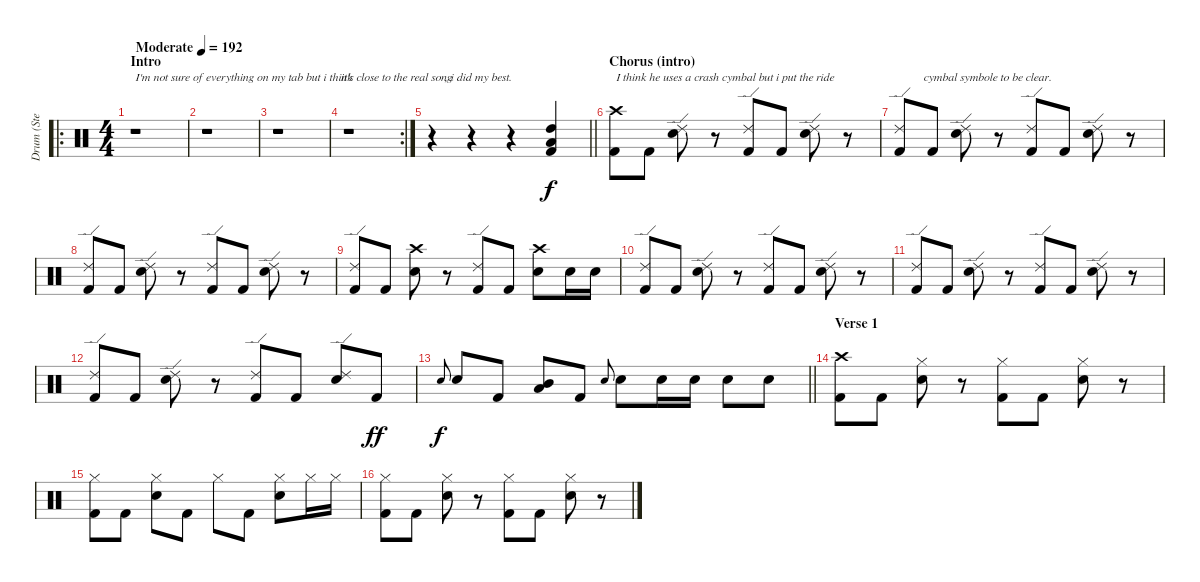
\track (" Drum (Steve O)" " Drum (Ste") {instrument percussion}
\staff {score}
\articulation defaults
\ro
\ts (4 4)
\section ("" "Intro")
\tempo (192 "Moderate")
\clef neutral
\ks c
r.1{txt "I'm not sure of everything on my tab but i think " dy f} |
r.1 |
r.1{txt "                     it's close to the real song"} |
\rc 2
r.1{txt "                                , i did my best."} |
\barLineRight lightlight
r.4 r.4 r.4 ("High Tom (hit)" "Low Tom (hit)" "Kick (hit) 2").4 |
\section ("" "Chorus (intro)")
("Crash high (hit)" "Kick (hit) 2").8{txt "I think he uses a crash cymbal but i put the ride "} "Kick (hit) 2".8 ("Ride (edge) 2" "Snare (hit) 2").8 r.8 ("Ride (edge) 2" "Kick (hit) 2").8 "Kick (hit) 2".8 ("Ride (edge) 2" "Snare (hit) 2").8 r.8 |
("Ride (edge) 2" "Kick (hit) 2").8{txt "        cymbal symbole to be clear."} "Kick (hit) 2".8 ("Ride (edge) 2" "Snare (hit) 2").8 r.8 ("Ride (edge) 2" "Kick (hit) 2").8 "Kick (hit) 2".8 ("Ride (edge) 2" "Snare (hit) 2").8 r.8 |
("Ride (edge) 2" "Kick (hit) 2").8 "Kick (hit) 2".8 ("Ride (edge) 2" "Snare (hit) 2").8 r.8 ("Ride (edge) 2" "Kick (hit) 2").8 "Kick (hit) 2".8 ("Ride (edge) 2" "Snare (hit) 2").8 r.8 |
("Ride (edge) 2" "Kick (hit) 2").8 "Kick (hit) 2".8 ("Crash high (hit)" "Snare (hit) 2").8 r.8 ("Ride (edge) 2" "Kick (hit) 2").8 "Kick (hit) 2".8 ("Crash high (hit)" "Snare (hit) 2").8 "Snare (hit) 2".16 "Snare (hit) 2".16 |
("Ride (edge) 2" "Kick (hit) 2").8 "Kick (hit) 2".8 ("Ride (edge) 2" "Snare (hit) 2").8 r.8 ("Ride (edge) 2" "Kick (hit) 2").8 "Kick (hit) 2".8 ("Ride (edge) 2" "Snare (hit) 2").8 r.8 |
("Ride (edge) 2" "Kick (hit) 2").8 "Kick (hit) 2".8 ("Ride (edge) 2" "Snare (hit) 2").8 r.8 ("Ride (edge) 2" "Kick (hit) 2").8 "Kick (hit) 2".8 ("Ride (edge) 2" "Snare (hit) 2").8 r.8 |
("Ride (edge) 2" "Kick (hit) 2").8 "Kick (hit) 2".8 ("Ride (edge) 2" "Snare (hit) 2").8 r.8 ("Ride (edge) 2" "Kick (hit) 2").8 "Kick (hit) 2".8 ("Ride (edge) 2" "Snare (hit) 2").8 "Kick (hit) 2".8{dy ff} |
\barLineRight lightlight "Snare (hit) 2".8{gr onbeat dy f} "Snare (hit) 2".8 "Kick (hit) 2".8
("Mid Tom (hit)" "Low Floor Tom (hit)").8 "Kick (hit) 2".8 "Snare (hit) 2".8{gr onbeat} "Snare (hit) 2".8 "Snare (hit) 2".16 "Snare (hit) 2".16 "Snare (hit) 2".8 "Snare (hit) 2".8 |
\section ("" "Verse 1")
("Crash high (hit)" "Kick (hit) 2").8 "Kick (hit) 2".8 ("Hi-Hat (closed)" "Snare (hit) 2").8 r.8 ("Hi-Hat (closed)" "Kick (hit) 2").8 "Kick (hit) 2".8 ("Hi-Hat (closed)" "Snare (hit) 2").8 r.8 |
("Hi-Hat (closed)" "Kick (hit) 2").8 "Kick (hit) 2".8 ("Hi-Hat (closed)" "Snare (hit) 2").8 "Kick (hit) 2".8 "Hi-Hat (closed)".8 "Kick (hit) 2".8 ("Hi-Hat (closed)" "Snare (hit) 2").8 "Hi-Hat (closed)".16 "Hi-Hat (closed)".16 |
("Hi-Hat (closed)" "Kick (hit) 2").8 "Kick (hit) 2".8 ("Hi-Hat (closed)" "Snare (hit) 2").8 r.8 ("Hi-Hat (closed)" "Kick (hit) 2").8 "Kick (hit) 2".8 ("Hi-Hat (closed)" "Snare (hit) 2").8 r.8
